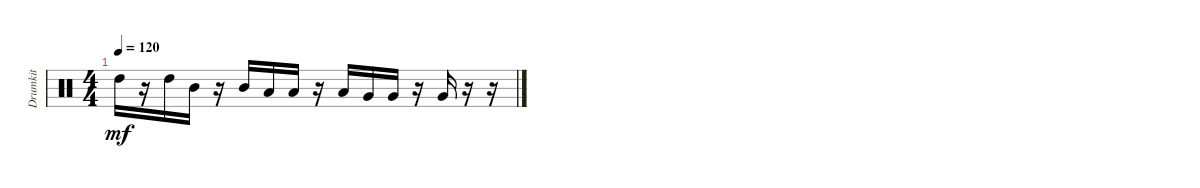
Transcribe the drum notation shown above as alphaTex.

\track ("Drumkit" "Drumkit") {instrument percussion}
\staff {score}
\articulation defaults
\ts (4 4)
\tempo 120
\clef neutral
\ks c "High Tom (hit)".16{dy mf}
r.16 "High Tom (hit)".16 "Mid Tom (hit)".16 r.16 "Mid Tom (hit)".16 "Low Tom (hit)".16 "Low Tom (hit)".16 r.16 "Low Tom (hit)".16 "Very Low Tom (hit)".16 "Very Low Tom (hit)".16 r.16 "Very Low Tom (hit)".16 r.16 r.16
